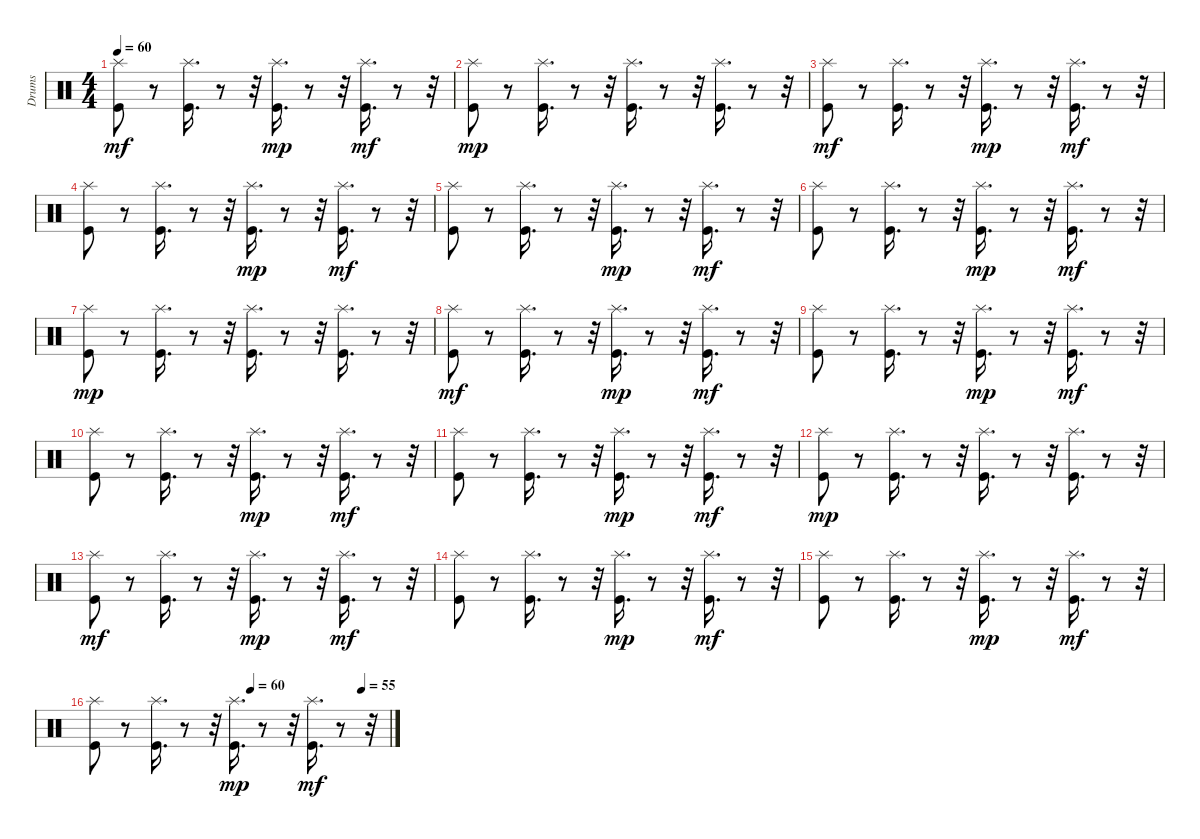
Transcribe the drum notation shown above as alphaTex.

\track ("Drums" "Drums") {instrument percussion}
\staff {score}
\articulation defaults
\ts (4 4)
\tempo 60
\clef neutral
\ks c
("Splash (hit)" "Kick (hit)").8{dy mf} r.8 ("Kick (hit)" "Splash (hit)").16{d} r.8 r.32 ("Splash (hit)" "Kick (hit)").16{d dy mp} r.8 r.32 ("Kick (hit)" "Splash (hit)").16{d dy mf} r.8 r.32 |
("Splash (hit)" "Kick (hit)").8{dy mp} r.8 ("Kick (hit)" "Splash (hit)").16{d} r.8 r.32 ("Splash (hit)" "Kick (hit)").16{d} r.8 r.32 ("Kick (hit)" "Splash (hit)").16{d} r.8 r.32 |
("Splash (hit)" "Kick (hit)").8{dy mf} r.8 ("Kick (hit)" "Splash (hit)").16{d} r.8 r.32 ("Splash (hit)" "Kick (hit)").16{d dy mp} r.8 r.32 ("Kick (hit)" "Splash (hit)").16{d dy mf} r.8 r.32 |
("Splash (hit)" "Kick (hit)").8 r.8 ("Kick (hit)" "Splash (hit)").16{d} r.8 r.32 ("Splash (hit)" "Kick (hit)").16{d dy mp} r.8 r.32 ("Kick (hit)" "Splash (hit)").16{d dy mf} r.8 r.32 |
("Splash (hit)" "Kick (hit)").8 r.8 ("Kick (hit)" "Splash (hit)").16{d} r.8 r.32 ("Splash (hit)" "Kick (hit)").16{d dy mp} r.8 r.32 ("Kick (hit)" "Splash (hit)").16{d dy mf} r.8 r.32 |
("Splash (hit)" "Kick (hit)").8 r.8 ("Kick (hit)" "Splash (hit)").16{d} r.8 r.32 ("Splash (hit)" "Kick (hit)").16{d dy mp} r.8 r.32 ("Kick (hit)" "Splash (hit)").16{d dy mf} r.8 r.32 |
("Splash (hit)" "Kick (hit)").8{dy mp} r.8 ("Kick (hit)" "Splash (hit)").16{d} r.8 r.32 ("Splash (hit)" "Kick (hit)").16{d} r.8 r.32 ("Kick (hit)" "Splash (hit)").16{d} r.8 r.32 |
("Splash (hit)" "Kick (hit)").8{dy mf} r.8 ("Kick (hit)" "Splash (hit)").16{d} r.8 r.32 ("Splash (hit)" "Kick (hit)").16{d dy mp} r.8 r.32 ("Kick (hit)" "Splash (hit)").16{d dy mf} r.8 r.32 |
("Splash (hit)" "Kick (hit)").8 r.8 ("Kick (hit)" "Splash (hit)").16{d} r.8 r.32 ("Splash (hit)" "Kick (hit)").16{d dy mp} r.8 r.32 ("Kick (hit)" "Splash (hit)").16{d dy mf} r.8 r.32 |
("Splash (hit)" "Kick (hit)").8 r.8 ("Kick (hit)" "Splash (hit)").16{d} r.8 r.32 ("Splash (hit)" "Kick (hit)").16{d dy mp} r.8 r.32 ("Kick (hit)" "Splash (hit)").16{d dy mf} r.8 r.32 |
("Splash (hit)" "Kick (hit)").8 r.8 ("Kick (hit)" "Splash (hit)").16{d} r.8 r.32 ("Splash (hit)" "Kick (hit)").16{d dy mp} r.8 r.32 ("Kick (hit)" "Splash (hit)").16{d dy mf} r.8 r.32 |
("Splash (hit)" "Kick (hit)").8{dy mp} r.8 ("Kick (hit)" "Splash (hit)").16{d} r.8 r.32 ("Splash (hit)" "Kick (hit)").16{d} r.8 r.32 ("Kick (hit)" "Splash (hit)").16{d} r.8 r.32 |
("Splash (hit)" "Kick (hit)").8{dy mf} r.8 ("Kick (hit)" "Splash (hit)").16{d} r.8 r.32 ("Splash (hit)" "Kick (hit)").16{d dy mp} r.8 r.32 ("Kick (hit)" "Splash (hit)").16{d dy mf} r.8 r.32 |
("Splash (hit)" "Kick (hit)").8 r.8 ("Kick (hit)" "Splash (hit)").16{d} r.8 r.32 ("Splash (hit)" "Kick (hit)").16{d dy mp} r.8 r.32 ("Kick (hit)" "Splash (hit)").16{d dy mf} r.8 r.32 |
("Splash (hit)" "Kick (hit)").8 r.8 ("Kick (hit)" "Splash (hit)").16{d} r.8 r.32 ("Splash (hit)" "Kick (hit)").16{d dy mp} r.8 r.32 ("Kick (hit)" "Splash (hit)").16{d dy mf} r.8 r.32 |
\tempo (60 0.53125)
\tempo (55 0.90625)
("Splash (hit)" "Kick (hit)").8 r.8 ("Kick (hit)" "Splash (hit)").16{d} r.8 r.32 ("Splash (hit)" "Kick (hit)").16{d dy mp} r.8 r.32 ("Kick (hit)" "Splash (hit)").16{d dy mf} r.8 r.32
